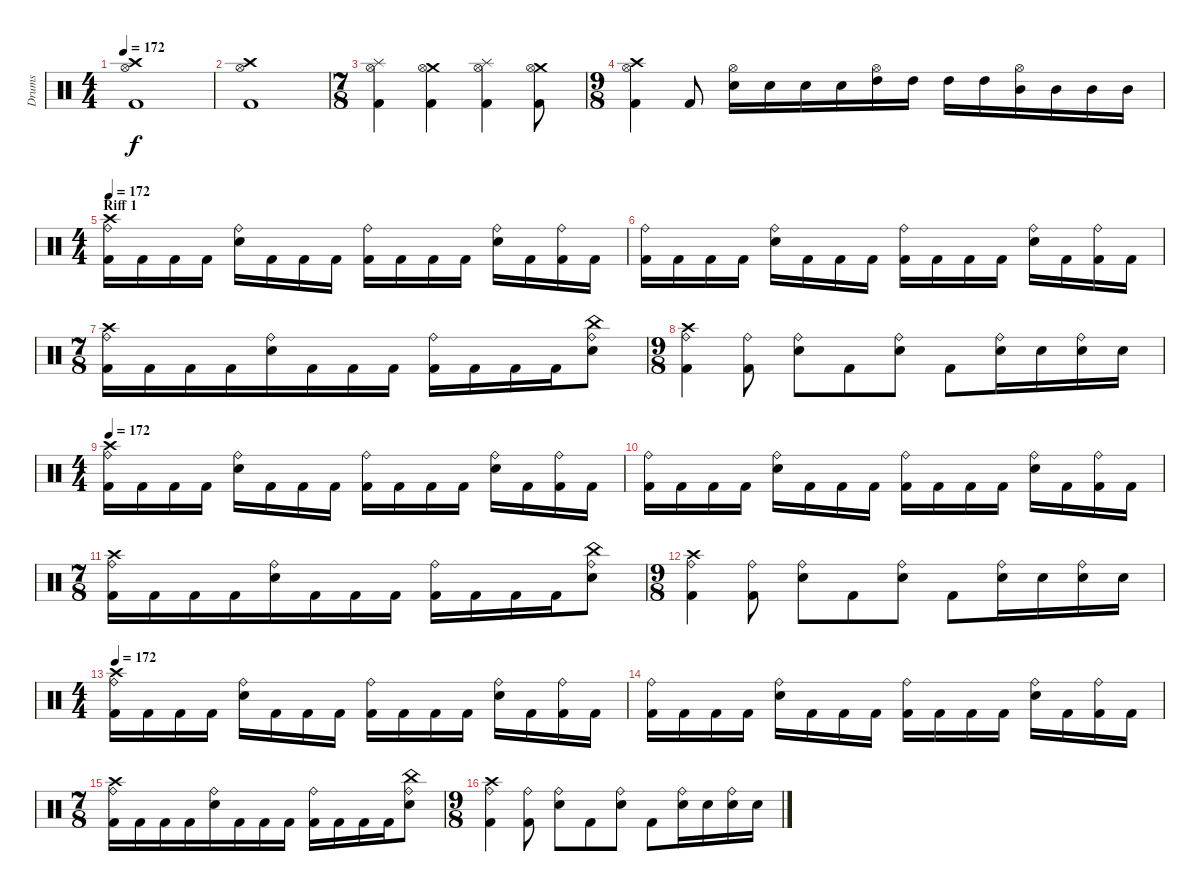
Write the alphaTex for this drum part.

\track ("Drums" "Drums") {instrument percussion}
\staff {score}
\articulation defaults
\ts (4 4)
\tempo 172
\clef neutral
\ks c
("Crash high (hit)" "Hi-Hat (open)" "Kick (hit) 2").1{dy f} |
("Crash high (hit)" "Hi-Hat (open)" "Kick (hit) 2").1 |
\ts (7 8)
("Splash (hit)" "Hi-Hat (open)" "Kick (hit) 2").4 ("Crash medium (hit)" "Hi-Hat (open)" "Kick (hit) 2").4 ("Splash (hit)" "Hi-Hat (open)" "Kick (hit) 2").4 ("Crash medium (hit)" "Hi-Hat (open)" "Kick (hit) 2").8 |
\ts (9 8)
("Crash high (hit)" "Hi-Hat (open)" "Kick (hit) 2").4 "Kick (hit) 2".8 ("Hi-Hat (open)" "Electric Snare (hit)").16 "Electric Snare (hit)".16 "Electric Snare (hit)".16 "Electric Snare (hit)".16 ("Hi-Hat (open)" "High Tom (hit)").16 "High Tom (hit)".16 "High Tom (hit)".16 "High Tom (hit)".16 ("Hi-Hat (open)" "Mid Tom (hit)").16 "Mid Tom (hit)".16 "Mid Tom (hit)".16 "Mid Tom (hit)".16 |
\ts (4 4)
\section ("" "Riff 1")
\tempo 172
("Crash high (hit)" "Ride (bell)" "Kick (hit) 2").16 "Kick (hit) 2".16 "Kick (hit) 2".16 "Kick (hit) 2".16 ("Ride (bell)" "Electric Snare (hit)").16 "Kick (hit) 2".16 "Kick (hit) 2".16 "Kick (hit) 2".16 ("Ride (bell)" "Kick (hit) 2").16 "Kick (hit) 2".16 "Kick (hit) 2".16 "Kick (hit) 2".16 ("Ride (bell)" "Electric Snare (hit)").16 "Kick (hit) 2".16 ("Ride (bell)" "Kick (hit) 2").16 "Kick (hit) 2".16 |
("Ride (bell)" "Kick (hit) 2").16 "Kick (hit) 2".16 "Kick (hit) 2".16 "Kick (hit) 2".16 ("Ride (bell)" "Electric Snare (hit)").16 "Kick (hit) 2".16 "Kick (hit) 2".16 "Kick (hit) 2".16 ("Ride (bell)" "Kick (hit) 2").16 "Kick (hit) 2".16 "Kick (hit) 2".16 "Kick (hit) 2".16 ("Ride (bell)" "Electric Snare (hit)").16 "Kick (hit) 2".16 ("Ride (bell)" "Kick (hit) 2").16 "Kick (hit) 2".16 |
\ts (7 8)
("Crash high (hit)" "Ride (bell)" "Kick (hit) 2").16 "Kick (hit) 2".16 "Kick (hit) 2".16 "Kick (hit) 2".16 ("Ride (bell)" "Electric Snare (hit)").16 "Kick (hit) 2".16 "Kick (hit) 2".16 "Kick (hit) 2".16 ("Ride (bell)" "Kick (hit) 2").16 "Kick (hit) 2".16 "Kick (hit) 2".16 "Kick (hit) 2".16 ("China (hit)" "Ride (bell)" "Electric Snare (hit)").8 |
\ts (9 8)
("Crash high (hit)" "Ride (bell)" "Kick (hit) 2").4 ("Ride (bell)" "Kick (hit) 2").8 ("Ride (bell)" "Electric Snare (hit)").8 "Kick (hit) 2".8 ("Ride (bell)" "Electric Snare (hit)").8 "Kick (hit) 2".8 ("Ride (bell)" "Electric Snare (hit)").16 "Electric Snare (hit)".16 ("Ride (bell)" "Electric Snare (hit)").16 "Electric Snare (hit)".16 |
\ts (4 4)
\tempo 172
("Crash high (hit)" "Ride (bell)" "Kick (hit) 2").16 "Kick (hit) 2".16 "Kick (hit) 2".16 "Kick (hit) 2".16 ("Ride (bell)" "Electric Snare (hit)").16 "Kick (hit) 2".16 "Kick (hit) 2".16 "Kick (hit) 2".16 ("Ride (bell)" "Kick (hit) 2").16 "Kick (hit) 2".16 "Kick (hit) 2".16 "Kick (hit) 2".16 ("Ride (bell)" "Electric Snare (hit)").16 "Kick (hit) 2".16 ("Ride (bell)" "Kick (hit) 2").16 "Kick (hit) 2".16 |
("Ride (bell)" "Kick (hit) 2").16 "Kick (hit) 2".16 "Kick (hit) 2".16 "Kick (hit) 2".16 ("Ride (bell)" "Electric Snare (hit)").16 "Kick (hit) 2".16 "Kick (hit) 2".16 "Kick (hit) 2".16 ("Ride (bell)" "Kick (hit) 2").16 "Kick (hit) 2".16 "Kick (hit) 2".16 "Kick (hit) 2".16 ("Ride (bell)" "Electric Snare (hit)").16 "Kick (hit) 2".16 ("Ride (bell)" "Kick (hit) 2").16 "Kick (hit) 2".16 |
\ts (7 8)
("Crash high (hit)" "Ride (bell)" "Kick (hit) 2").16 "Kick (hit) 2".16 "Kick (hit) 2".16 "Kick (hit) 2".16 ("Ride (bell)" "Electric Snare (hit)").16 "Kick (hit) 2".16 "Kick (hit) 2".16 "Kick (hit) 2".16 ("Ride (bell)" "Kick (hit) 2").16 "Kick (hit) 2".16 "Kick (hit) 2".16 "Kick (hit) 2".16 ("China (hit)" "Ride (bell)" "Electric Snare (hit)").8 |
\ts (9 8)
("Crash high (hit)" "Ride (bell)" "Kick (hit) 2").4 ("Ride (bell)" "Kick (hit) 2").8 ("Ride (bell)" "Electric Snare (hit)").8 "Kick (hit) 2".8 ("Ride (bell)" "Electric Snare (hit)").8 "Kick (hit) 2".8 ("Ride (bell)" "Electric Snare (hit)").16 "Electric Snare (hit)".16 ("Ride (bell)" "Electric Snare (hit)").16 "Electric Snare (hit)".16 |
\ts (4 4)
\tempo 172
("Crash high (hit)" "Ride (bell)" "Kick (hit) 2").16 "Kick (hit) 2".16 "Kick (hit) 2".16 "Kick (hit) 2".16 ("Ride (bell)" "Electric Snare (hit)").16 "Kick (hit) 2".16 "Kick (hit) 2".16 "Kick (hit) 2".16 ("Ride (bell)" "Kick (hit) 2").16 "Kick (hit) 2".16 "Kick (hit) 2".16 "Kick (hit) 2".16 ("Ride (bell)" "Electric Snare (hit)").16 "Kick (hit) 2".16 ("Ride (bell)" "Kick (hit) 2").16 "Kick (hit) 2".16 |
("Ride (bell)" "Kick (hit) 2").16 "Kick (hit) 2".16 "Kick (hit) 2".16 "Kick (hit) 2".16 ("Ride (bell)" "Electric Snare (hit)").16 "Kick (hit) 2".16 "Kick (hit) 2".16 "Kick (hit) 2".16 ("Ride (bell)" "Kick (hit) 2").16 "Kick (hit) 2".16 "Kick (hit) 2".16 "Kick (hit) 2".16 ("Ride (bell)" "Electric Snare (hit)").16 "Kick (hit) 2".16 ("Ride (bell)" "Kick (hit) 2").16 "Kick (hit) 2".16 |
\ts (7 8)
("Crash high (hit)" "Ride (bell)" "Kick (hit) 2").16 "Kick (hit) 2".16 "Kick (hit) 2".16 "Kick (hit) 2".16 ("Ride (bell)" "Electric Snare (hit)").16 "Kick (hit) 2".16 "Kick (hit) 2".16 "Kick (hit) 2".16 ("Ride (bell)" "Kick (hit) 2").16 "Kick (hit) 2".16 "Kick (hit) 2".16 "Kick (hit) 2".16 ("China (hit)" "Ride (bell)" "Electric Snare (hit)").8 |
\ts (9 8)
("Crash high (hit)" "Ride (bell)" "Kick (hit) 2").4 ("Ride (bell)" "Kick (hit) 2").8 ("Ride (bell)" "Electric Snare (hit)").8 "Kick (hit) 2".8 ("Ride (bell)" "Electric Snare (hit)").8 "Kick (hit) 2".8 ("Ride (bell)" "Electric Snare (hit)").16 "Electric Snare (hit)".16 ("Ride (bell)" "Electric Snare (hit)").16 "Electric Snare (hit)".16
